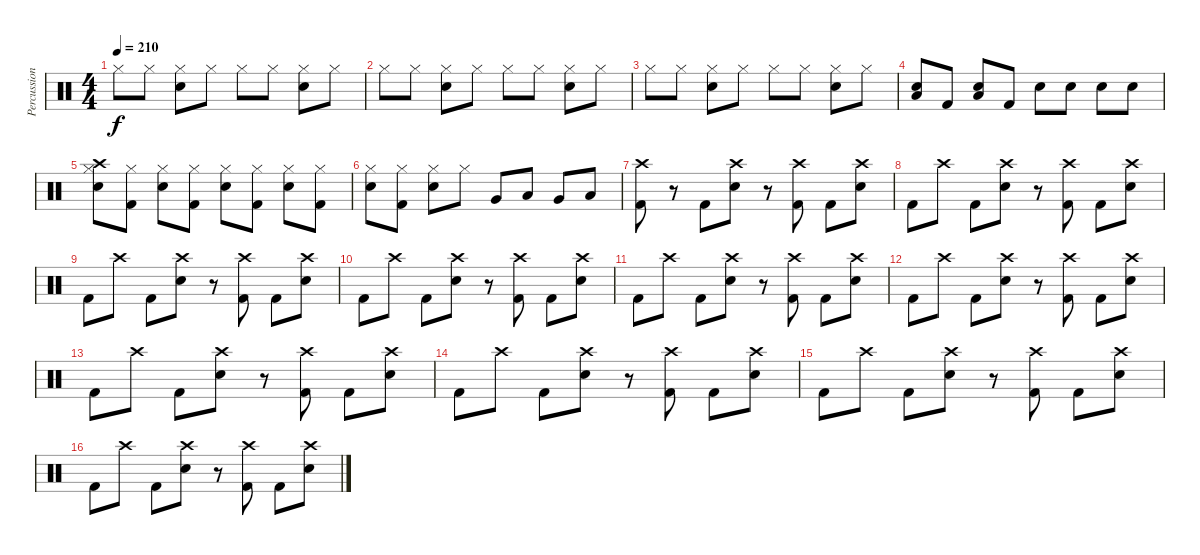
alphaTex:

\track ("Percussion" "Percussion") {instrument percussion}
\staff {score}
\articulation defaults
\ts (4 4)
\tempo 210
\clef neutral
\ks c "Hi-Hat (closed)".8{dy f} "Hi-Hat (closed)".8
("Hi-Hat (closed)" "Snare (hit) 2").8 "Hi-Hat (closed)".8 "Hi-Hat (closed)".8 "Hi-Hat (closed)".8 ("Hi-Hat (closed)" "Snare (hit) 2").8 "Hi-Hat (closed)".8 |
"Hi-Hat (closed)".8 "Hi-Hat (closed)".8 ("Hi-Hat (closed)" "Snare (hit) 2").8 "Hi-Hat (closed)".8 "Hi-Hat (closed)".8 "Hi-Hat (closed)".8 ("Hi-Hat (closed)" "Snare (hit) 2").8 "Hi-Hat (closed)".8 |
"Hi-Hat (closed)".8 "Hi-Hat (closed)".8 ("Hi-Hat (closed)" "Snare (hit) 2").8 "Hi-Hat (closed)".8 "Hi-Hat (closed)".8 "Hi-Hat (closed)".8 ("Hi-Hat (closed)" "Snare (hit) 2").8 "Hi-Hat (closed)".8 |
("Low Floor Tom (hit)" "Snare (hit) 2").8 "Kick (hit) 2".8 ("Low Floor Tom (hit)" "Snare (hit) 2").8 "Kick (hit) 2".8 "Snare (hit) 2".8 "Snare (hit) 2".8 "Snare (hit) 2".8 "Snare (hit) 2".8 |
("Crash high (hit)" "Hi-Hat (closed)" "Snare (hit) 2").8 ("Hi-Hat (closed)" "Kick (hit) 2").8 ("Hi-Hat (closed)" "Snare (hit) 2").8 ("Hi-Hat (closed)" "Kick (hit) 2").8 ("Hi-Hat (closed)" "Snare (hit) 2").8 ("Hi-Hat (closed)" "Kick (hit) 2").8 ("Hi-Hat (closed)" "Snare (hit) 2").8 ("Hi-Hat (closed)" "Kick (hit) 2").8 |
("Hi-Hat (closed)" "Snare (hit) 2").8 ("Hi-Hat (closed)" "Kick (hit) 2").8 ("Hi-Hat (closed)" "Snare (hit) 2").8 "Hi-Hat (closed)".8 "Very Low Tom (hit)".8 "Low Floor Tom (hit)".8 "Very Low Tom (hit)".8 "Low Floor Tom (hit)".8 |
("Crash high (hit)" "Kick (hit) 2").8 r.8 "Kick (hit) 2".8 ("Crash high (hit)" "Snare (hit) 2").8 r.8 ("Crash high (hit)" "Kick (hit) 2").8 "Kick (hit) 2".8 ("Crash high (hit)" "Snare (hit) 2").8 |
"Kick (hit) 2".8 "Crash high (hit)".8 "Kick (hit) 2".8 ("Crash high (hit)" "Snare (hit) 2").8 r.8 ("Crash high (hit)" "Kick (hit) 2").8 "Kick (hit) 2".8 ("Crash high (hit)" "Snare (hit) 2").8 |
"Kick (hit) 2".8 "Crash high (hit)".8 "Kick (hit) 2".8 ("Crash high (hit)" "Snare (hit) 2").8 r.8 ("Crash high (hit)" "Kick (hit) 2").8 "Kick (hit) 2".8 ("Crash high (hit)" "Snare (hit) 2").8 |
"Kick (hit) 2".8 "Crash high (hit)".8 "Kick (hit) 2".8 ("Crash high (hit)" "Snare (hit) 2").8 r.8 ("Crash high (hit)" "Kick (hit) 2").8 "Kick (hit) 2".8 ("Crash high (hit)" "Snare (hit) 2").8 |
"Kick (hit) 2".8 "Crash high (hit)".8 "Kick (hit) 2".8 ("Crash high (hit)" "Snare (hit) 2").8 r.8 ("Crash high (hit)" "Kick (hit) 2").8 "Kick (hit) 2".8 ("Crash high (hit)" "Snare (hit) 2").8 |
"Kick (hit) 2".8 "Crash high (hit)".8 "Kick (hit) 2".8 ("Crash high (hit)" "Snare (hit) 2").8 r.8 ("Crash high (hit)" "Kick (hit) 2").8 "Kick (hit) 2".8 ("Crash high (hit)" "Snare (hit) 2").8 |
"Kick (hit) 2".8 "Crash high (hit)".8 "Kick (hit) 2".8 ("Crash high (hit)" "Snare (hit) 2").8 r.8 ("Crash high (hit)" "Kick (hit) 2").8 "Kick (hit) 2".8 ("Crash high (hit)" "Snare (hit) 2").8 |
"Kick (hit) 2".8 "Crash high (hit)".8 "Kick (hit) 2".8 ("Crash high (hit)" "Snare (hit) 2").8 r.8 ("Crash high (hit)" "Kick (hit) 2").8 "Kick (hit) 2".8 ("Crash high (hit)" "Snare (hit) 2").8 |
"Kick (hit) 2".8 "Crash high (hit)".8 "Kick (hit) 2".8 ("Crash high (hit)" "Snare (hit) 2").8 r.8 ("Crash high (hit)" "Kick (hit) 2").8 "Kick (hit) 2".8 ("Crash high (hit)" "Snare (hit) 2").8 |
"Kick (hit) 2".8 "Crash high (hit)".8 "Kick (hit) 2".8 ("Crash high (hit)" "Snare (hit) 2").8 r.8 ("Crash high (hit)" "Kick (hit) 2").8 "Kick (hit) 2".8 ("Crash high (hit)" "Snare (hit) 2").8
